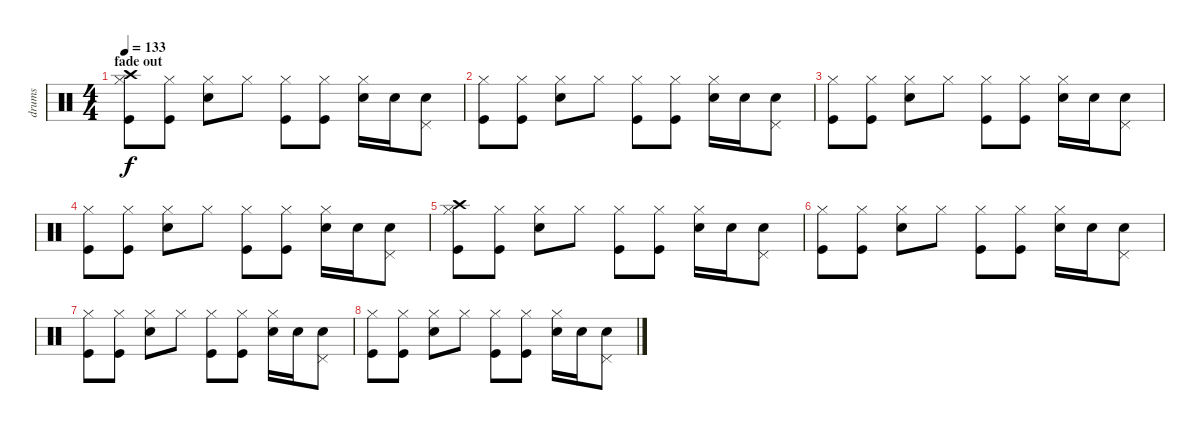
\track ("drums" "drums") {instrument percussion}
\staff {score}
\articulation defaults
\ts (4 4)
\section ("" "fade out")
\tempo 133
\clef neutral
\ks c
("Kick (hit)" "Hi-Hat (closed)" "Crash high (hit)").8{dy f} ("Kick (hit)" "Hi-Hat (closed)").8 ("Electric Snare (hit)" "Hi-Hat (closed)").8 "Hi-Hat (closed)".8 ("Kick (hit)" "Hi-Hat (closed)").8 ("Kick (hit)" "Hi-Hat (closed)").8 ("Electric Snare (hit)" "Hi-Hat (closed)").16 "Electric Snare (hit)".16 ("Electric Snare (hit)" "Pedal Hi-Hat (hit)").8 |
("Kick (hit)" "Hi-Hat (closed)").8 ("Kick (hit)" "Hi-Hat (closed)").8 ("Electric Snare (hit)" "Hi-Hat (closed)").8 "Hi-Hat (closed)".8 ("Kick (hit)" "Hi-Hat (closed)").8 ("Kick (hit)" "Hi-Hat (closed)").8 ("Electric Snare (hit)" "Hi-Hat (closed)").16 "Electric Snare (hit)".16 ("Electric Snare (hit)" "Pedal Hi-Hat (hit)").8 |
("Kick (hit)" "Hi-Hat (closed)").8 ("Kick (hit)" "Hi-Hat (closed)").8 ("Electric Snare (hit)" "Hi-Hat (closed)").8 "Hi-Hat (closed)".8 ("Kick (hit)" "Hi-Hat (closed)").8 ("Kick (hit)" "Hi-Hat (closed)").8 ("Electric Snare (hit)" "Hi-Hat (closed)").16 "Electric Snare (hit)".16 ("Electric Snare (hit)" "Pedal Hi-Hat (hit)").8 |
("Kick (hit)" "Hi-Hat (closed)").8 ("Kick (hit)" "Hi-Hat (closed)").8 ("Electric Snare (hit)" "Hi-Hat (closed)").8 "Hi-Hat (closed)".8 ("Kick (hit)" "Hi-Hat (closed)").8 ("Kick (hit)" "Hi-Hat (closed)").8 ("Electric Snare (hit)" "Hi-Hat (closed)").16 "Electric Snare (hit)".16 ("Electric Snare (hit)" "Pedal Hi-Hat (hit)").8 |
("Kick (hit)" "Hi-Hat (closed)" "Crash high (hit)").8 ("Kick (hit)" "Hi-Hat (closed)").8 ("Electric Snare (hit)" "Hi-Hat (closed)").8 "Hi-Hat (closed)".8 ("Kick (hit)" "Hi-Hat (closed)").8 ("Kick (hit)" "Hi-Hat (closed)").8 ("Electric Snare (hit)" "Hi-Hat (closed)").16 "Electric Snare (hit)".16 ("Electric Snare (hit)" "Pedal Hi-Hat (hit)").8 |
("Kick (hit)" "Hi-Hat (closed)").8 ("Kick (hit)" "Hi-Hat (closed)").8 ("Electric Snare (hit)" "Hi-Hat (closed)").8 "Hi-Hat (closed)".8 ("Kick (hit)" "Hi-Hat (closed)").8 ("Kick (hit)" "Hi-Hat (closed)").8 ("Electric Snare (hit)" "Hi-Hat (closed)").16 "Electric Snare (hit)".16 ("Electric Snare (hit)" "Pedal Hi-Hat (hit)").8 |
("Kick (hit)" "Hi-Hat (closed)").8 ("Kick (hit)" "Hi-Hat (closed)").8 ("Electric Snare (hit)" "Hi-Hat (closed)").8 "Hi-Hat (closed)".8 ("Kick (hit)" "Hi-Hat (closed)").8 ("Kick (hit)" "Hi-Hat (closed)").8 ("Electric Snare (hit)" "Hi-Hat (closed)").16 "Electric Snare (hit)".16 ("Electric Snare (hit)" "Pedal Hi-Hat (hit)").8 |
("Kick (hit)" "Hi-Hat (closed)").8 ("Kick (hit)" "Hi-Hat (closed)").8 ("Electric Snare (hit)" "Hi-Hat (closed)").8 "Hi-Hat (closed)".8 ("Kick (hit)" "Hi-Hat (closed)").8 ("Kick (hit)" "Hi-Hat (closed)").8 ("Electric Snare (hit)" "Hi-Hat (closed)").16 "Electric Snare (hit)".16 ("Electric Snare (hit)" "Pedal Hi-Hat (hit)").8
